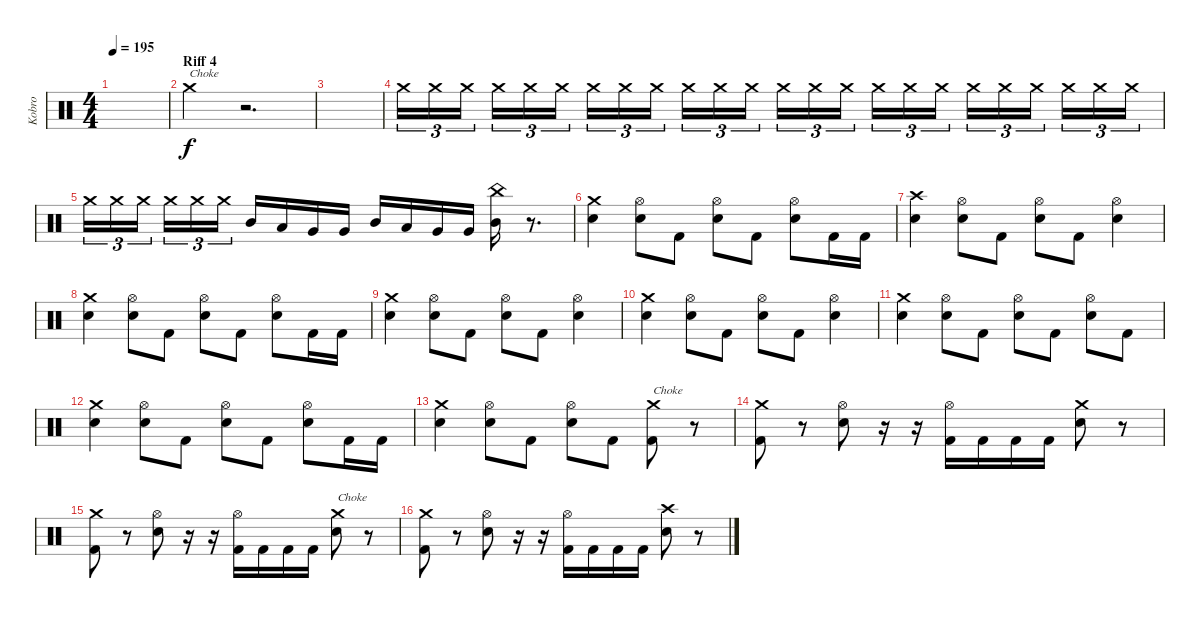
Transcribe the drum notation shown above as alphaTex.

\track ("Kobro" "Kobro") {instrument percussion}
\staff {score}
\articulation defaults
\ts (4 4)
\tempo 195
\clef neutral
\ks c
|
\section ("" "Riff 4")
"Crash medium (hit)".4{txt "Choke"} r.2{d volume 0} |
|
"Crash medium (hit)".16{tu (3 2) volume 13} "Crash medium (hit)".16{tu (3 2)} "Crash medium (hit)".16{tu (3 2)} "Crash medium (hit)".16{tu (3 2)} "Crash medium (hit)".16{tu (3 2)} "Crash medium (hit)".16{tu (3 2)} "Crash medium (hit)".16{tu (3 2)} "Crash medium (hit)".16{tu (3 2)} "Crash medium (hit)".16{tu (3 2)} "Crash medium (hit)".16{tu (3 2)} "Crash medium (hit)".16{tu (3 2)} "Crash medium (hit)".16{tu (3 2)} "Crash medium (hit)".16{tu (3 2)} "Crash medium (hit)".16{tu (3 2)} "Crash medium (hit)".16{tu (3 2)} "Crash medium (hit)".16{tu (3 2)} "Crash medium (hit)".16{tu (3 2)} "Crash medium (hit)".16{tu (3 2)} "Crash medium (hit)".16{tu (3 2)} "Crash medium (hit)".16{tu (3 2)} "Crash medium (hit)".16{tu (3 2)} "Crash medium (hit)".16{tu (3 2)} "Crash medium (hit)".16{tu (3 2)} "Crash medium (hit)".16{tu (3 2)} |
"Crash medium (hit)".16{tu (3 2)} "Crash medium (hit)".16{tu (3 2)} "Crash medium (hit)".16{tu (3 2)} "Crash medium (hit)".16{tu (3 2)} "Crash medium (hit)".16{tu (3 2)} "Crash medium (hit)".16{tu (3 2)} "Mid Tom (hit)".16 "Low Tom (hit)".16 "Very Low Tom (hit)".16 "Very Low Tom (hit)".16 "Mid Tom (hit)".16 "Low Tom (hit)".16 "Very Low Tom (hit)".16 "Very Low Tom (hit)".16 ("China (hit)" "Mid Tom (hit)").16 r.8{d} |
("Crash medium (hit)" "Electric Snare (hit)").4{volume 13} ("Hi-Hat (open)" "Electric Snare (hit)").8 "Kick (hit) 2".8 ("Hi-Hat (open)" "Electric Snare (hit)").8 "Kick (hit) 2".8 ("Hi-Hat (open)" "Electric Snare (hit)").8 "Kick (hit) 2".16 "Kick (hit) 2".16 |
("Crash high (hit)" "Electric Snare (hit)").4 ("Hi-Hat (open)" "Electric Snare (hit)").8 "Kick (hit) 2".8 ("Hi-Hat (open)" "Electric Snare (hit)").8 "Kick (hit) 2".8 ("Hi-Hat (open)" "Electric Snare (hit)").4 |
("Crash medium (hit)" "Electric Snare (hit)").4 ("Hi-Hat (open)" "Electric Snare (hit)").8 "Kick (hit) 2".8 ("Hi-Hat (open)" "Electric Snare (hit)").8 "Kick (hit) 2".8 ("Hi-Hat (open)" "Electric Snare (hit)").8 "Kick (hit) 2".16 "Kick (hit) 2".16 |
("Crash medium (hit)" "Electric Snare (hit)").4 ("Hi-Hat (open)" "Electric Snare (hit)").8 "Kick (hit) 2".8 ("Hi-Hat (open)" "Electric Snare (hit)").8 "Kick (hit) 2".8 ("Hi-Hat (open)" "Electric Snare (hit)").4 |
("Crash medium (hit)" "Electric Snare (hit)").4 ("Hi-Hat (open)" "Electric Snare (hit)").8 "Kick (hit) 2".8 ("Hi-Hat (open)" "Electric Snare (hit)").8 "Kick (hit) 2".8 ("Hi-Hat (open)" "Electric Snare (hit)").4 |
("Crash medium (hit)" "Electric Snare (hit)").4 ("Hi-Hat (open)" "Electric Snare (hit)").8 "Kick (hit) 2".8 ("Hi-Hat (open)" "Electric Snare (hit)").8 "Kick (hit) 2".8 ("Hi-Hat (open)" "Electric Snare (hit)").8 "Kick (hit) 2".8 |
("Crash medium (hit)" "Electric Snare (hit)").4 ("Hi-Hat (open)" "Electric Snare (hit)").8 "Kick (hit) 2".8 ("Hi-Hat (open)" "Electric Snare (hit)").8 "Kick (hit) 2".8 ("Hi-Hat (open)" "Electric Snare (hit)").8 "Kick (hit) 2".16 "Kick (hit) 2".16 |
("Crash medium (hit)" "Electric Snare (hit)").4 ("Hi-Hat (open)" "Electric Snare (hit)").8 "Kick (hit) 2".8 ("Hi-Hat (open)" "Electric Snare (hit)").8 "Kick (hit) 2".8 ("Crash medium (hit)" "Kick (hit) 2").8{txt "Choke"} r.8{volume 0} |
("Crash medium (hit)" "Kick (hit) 2").8{volume 13} r.8 ("Hi-Hat (open)" "Electric Snare (hit)").8 r.16 r.16 ("Hi-Hat (open)" "Kick (hit) 2").16 "Kick (hit) 2".16 "Kick (hit) 2".16 "Kick (hit) 2".16 ("Crash medium (hit)" "Electric Snare (hit)").8 r.8 |
("Crash medium (hit)" "Kick (hit) 2").8 r.8 ("Hi-Hat (open)" "Electric Snare (hit)").8 r.16 r.16 ("Hi-Hat (open)" "Kick (hit) 2").16 "Kick (hit) 2".16 "Kick (hit) 2".16 "Kick (hit) 2".16 ("Crash medium (hit)" "Electric Snare (hit)").8{txt "Choke"} r.8{volume 0} |
("Crash medium (hit)" "Kick (hit) 2").8{volume 13} r.8 ("Hi-Hat (open)" "Electric Snare (hit)").8 r.16 r.16 ("Hi-Hat (open)" "Kick (hit) 2").16 "Kick (hit) 2".16 "Kick (hit) 2".16 "Kick (hit) 2".16 ("Crash high (hit)" "Electric Snare (hit)").8 r.8
